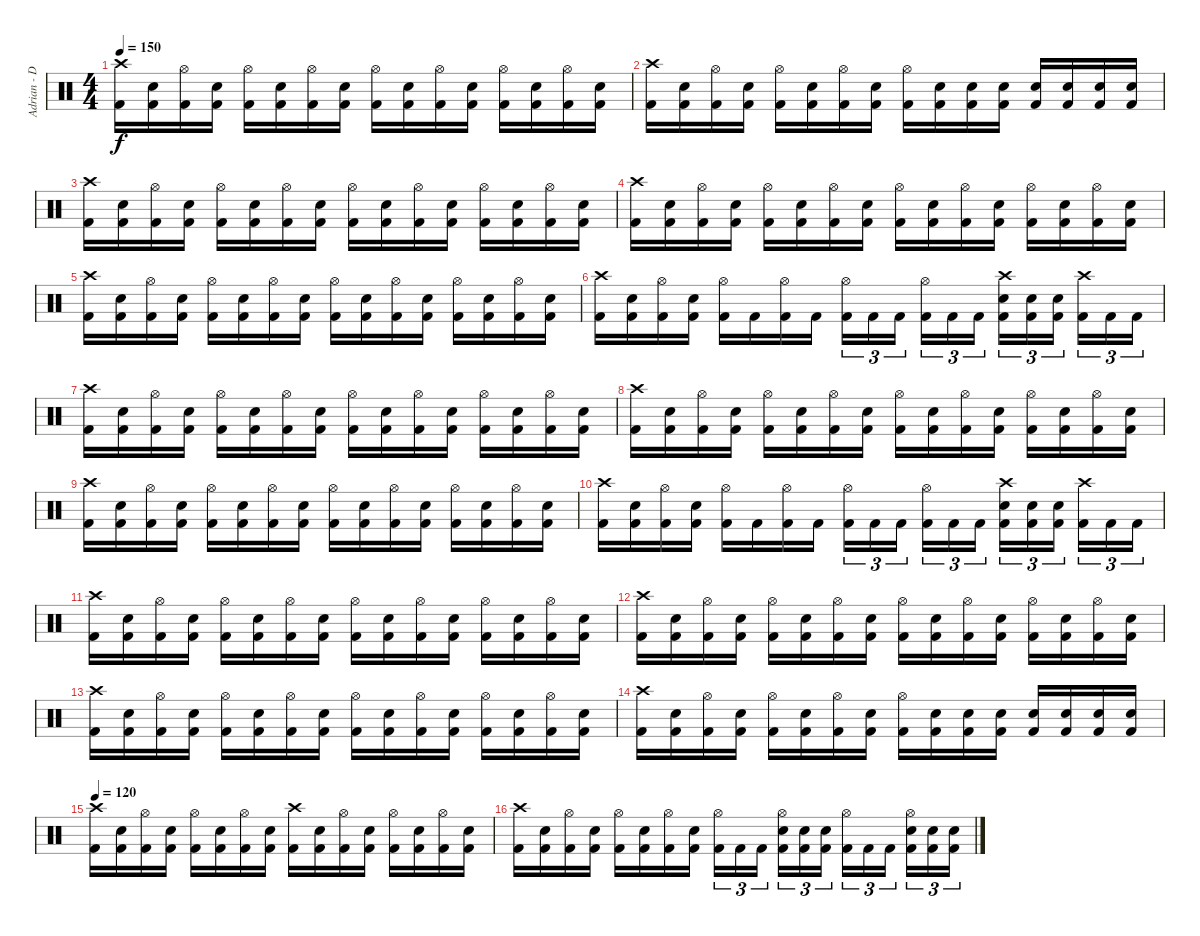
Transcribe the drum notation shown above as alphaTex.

\track ("Adrian - Drums" "Adrian - D") {instrument percussion}
\staff {score}
\articulation defaults
\ts (4 4)
\tempo 150
\clef neutral
\ks c
("Crash high (hit)" "Kick (hit) 2").16{dy f} ("Electric Snare (hit)" "Kick (hit) 2").16 ("Hi-Hat (open)" "Kick (hit) 2").16 ("Electric Snare (hit)" "Kick (hit) 2").16 ("Hi-Hat (open)" "Kick (hit) 2").16 ("Electric Snare (hit)" "Kick (hit) 2").16 ("Hi-Hat (open)" "Kick (hit) 2").16 ("Electric Snare (hit)" "Kick (hit) 2").16 ("Hi-Hat (open)" "Kick (hit) 2").16 ("Electric Snare (hit)" "Kick (hit) 2").16 ("Hi-Hat (open)" "Kick (hit) 2").16 ("Electric Snare (hit)" "Kick (hit) 2").16 ("Hi-Hat (open)" "Kick (hit) 2").16 ("Electric Snare (hit)" "Kick (hit) 2").16 ("Hi-Hat (open)" "Kick (hit) 2").16 ("Electric Snare (hit)" "Kick (hit) 2").16 |
("Crash high (hit)" "Kick (hit) 2").16 ("Electric Snare (hit)" "Kick (hit) 2").16 ("Hi-Hat (open)" "Kick (hit) 2").16 ("Electric Snare (hit)" "Kick (hit) 2").16 ("Hi-Hat (open)" "Kick (hit) 2").16 ("Electric Snare (hit)" "Kick (hit) 2").16 ("Hi-Hat (open)" "Kick (hit) 2").16 ("Electric Snare (hit)" "Kick (hit) 2").16 ("Hi-Hat (open)" "Kick (hit) 2").16 ("Electric Snare (hit)" "Kick (hit) 2").16 ("Electric Snare (hit)" "Kick (hit) 2").16 ("Electric Snare (hit)" "Kick (hit) 2").16 ("Electric Snare (hit)" "Kick (hit) 2").16 ("Electric Snare (hit)" "Kick (hit) 2").16 ("Electric Snare (hit)" "Kick (hit) 2").16 ("Electric Snare (hit)" "Kick (hit) 2").16 |
("Crash high (hit)" "Kick (hit) 2").16 ("Electric Snare (hit)" "Kick (hit) 2").16 ("Hi-Hat (open)" "Kick (hit) 2").16 ("Electric Snare (hit)" "Kick (hit) 2").16 ("Hi-Hat (open)" "Kick (hit) 2").16 ("Electric Snare (hit)" "Kick (hit) 2").16 ("Hi-Hat (open)" "Kick (hit) 2").16 ("Electric Snare (hit)" "Kick (hit) 2").16 ("Hi-Hat (open)" "Kick (hit) 2").16 ("Electric Snare (hit)" "Kick (hit) 2").16 ("Hi-Hat (open)" "Kick (hit) 2").16 ("Electric Snare (hit)" "Kick (hit) 2").16 ("Hi-Hat (open)" "Kick (hit) 2").16 ("Electric Snare (hit)" "Kick (hit) 2").16 ("Hi-Hat (open)" "Kick (hit) 2").16 ("Electric Snare (hit)" "Kick (hit) 2").16 |
("Crash high (hit)" "Kick (hit) 2").16 ("Electric Snare (hit)" "Kick (hit) 2").16 ("Hi-Hat (open)" "Kick (hit) 2").16 ("Electric Snare (hit)" "Kick (hit) 2").16 ("Hi-Hat (open)" "Kick (hit) 2").16 ("Electric Snare (hit)" "Kick (hit) 2").16 ("Hi-Hat (open)" "Kick (hit) 2").16 ("Electric Snare (hit)" "Kick (hit) 2").16 ("Hi-Hat (open)" "Kick (hit) 2").16 ("Electric Snare (hit)" "Kick (hit) 2").16 ("Hi-Hat (open)" "Kick (hit) 2").16 ("Electric Snare (hit)" "Kick (hit) 2").16 ("Hi-Hat (open)" "Kick (hit) 2").16 ("Electric Snare (hit)" "Kick (hit) 2").16 ("Hi-Hat (open)" "Kick (hit) 2").16 ("Electric Snare (hit)" "Kick (hit) 2").16 |
("Crash high (hit)" "Kick (hit) 2").16 ("Electric Snare (hit)" "Kick (hit) 2").16 ("Hi-Hat (open)" "Kick (hit) 2").16 ("Electric Snare (hit)" "Kick (hit) 2").16 ("Hi-Hat (open)" "Kick (hit) 2").16 ("Electric Snare (hit)" "Kick (hit) 2").16 ("Hi-Hat (open)" "Kick (hit) 2").16 ("Electric Snare (hit)" "Kick (hit) 2").16 ("Hi-Hat (open)" "Kick (hit) 2").16 ("Electric Snare (hit)" "Kick (hit) 2").16 ("Hi-Hat (open)" "Kick (hit) 2").16 ("Electric Snare (hit)" "Kick (hit) 2").16 ("Hi-Hat (open)" "Kick (hit) 2").16 ("Electric Snare (hit)" "Kick (hit) 2").16 ("Hi-Hat (open)" "Kick (hit) 2").16 ("Electric Snare (hit)" "Kick (hit) 2").16 |
("Crash high (hit)" "Kick (hit) 2").16 ("Electric Snare (hit)" "Kick (hit) 2").16 ("Hi-Hat (open)" "Kick (hit) 2").16 ("Electric Snare (hit)" "Kick (hit) 2").16 ("Hi-Hat (open)" "Kick (hit) 2").16 "Kick (hit) 2".16 ("Hi-Hat (open)" "Kick (hit) 2").16 "Kick (hit) 2".16 ("Hi-Hat (open)" "Kick (hit) 2").16{tu (3 2)} "Kick (hit) 2".16{tu (3 2)} "Kick (hit) 2".16{tu (3 2)} ("Hi-Hat (open)" "Kick (hit) 2").16{tu (3 2)} "Kick (hit) 2".16{tu (3 2)} "Kick (hit) 2".16{tu (3 2)} ("Crash high (hit)" "Electric Snare (hit)" "Kick (hit) 2").16{tu (3 2)} ("Electric Snare (hit)" "Kick (hit) 2").16{tu (3 2)} ("Electric Snare (hit)" "Kick (hit) 2").16{tu (3 2)} ("Crash high (hit)" "Kick (hit) 2").16{tu (3 2)} "Kick (hit) 2".16{tu (3 2)} "Kick (hit) 2".16{tu (3 2)} |
("Crash high (hit)" "Kick (hit) 2").16 ("Electric Snare (hit)" "Kick (hit) 2").16 ("Hi-Hat (open)" "Kick (hit) 2").16 ("Electric Snare (hit)" "Kick (hit) 2").16 ("Hi-Hat (open)" "Kick (hit) 2").16 ("Electric Snare (hit)" "Kick (hit) 2").16 ("Hi-Hat (open)" "Kick (hit) 2").16 ("Electric Snare (hit)" "Kick (hit) 2").16 ("Hi-Hat (open)" "Kick (hit) 2").16 ("Electric Snare (hit)" "Kick (hit) 2").16 ("Hi-Hat (open)" "Kick (hit) 2").16 ("Electric Snare (hit)" "Kick (hit) 2").16 ("Hi-Hat (open)" "Kick (hit) 2").16 ("Electric Snare (hit)" "Kick (hit) 2").16 ("Hi-Hat (open)" "Kick (hit) 2").16 ("Electric Snare (hit)" "Kick (hit) 2").16 |
("Crash high (hit)" "Kick (hit) 2").16 ("Electric Snare (hit)" "Kick (hit) 2").16 ("Hi-Hat (open)" "Kick (hit) 2").16 ("Electric Snare (hit)" "Kick (hit) 2").16 ("Hi-Hat (open)" "Kick (hit) 2").16 ("Electric Snare (hit)" "Kick (hit) 2").16 ("Hi-Hat (open)" "Kick (hit) 2").16 ("Electric Snare (hit)" "Kick (hit) 2").16 ("Hi-Hat (open)" "Kick (hit) 2").16 ("Electric Snare (hit)" "Kick (hit) 2").16 ("Hi-Hat (open)" "Kick (hit) 2").16 ("Electric Snare (hit)" "Kick (hit) 2").16 ("Hi-Hat (open)" "Kick (hit) 2").16 ("Electric Snare (hit)" "Kick (hit) 2").16 ("Hi-Hat (open)" "Kick (hit) 2").16 ("Electric Snare (hit)" "Kick (hit) 2").16 |
("Crash high (hit)" "Kick (hit) 2").16 ("Electric Snare (hit)" "Kick (hit) 2").16 ("Hi-Hat (open)" "Kick (hit) 2").16 ("Electric Snare (hit)" "Kick (hit) 2").16 ("Hi-Hat (open)" "Kick (hit) 2").16 ("Electric Snare (hit)" "Kick (hit) 2").16 ("Hi-Hat (open)" "Kick (hit) 2").16 ("Electric Snare (hit)" "Kick (hit) 2").16 ("Hi-Hat (open)" "Kick (hit) 2").16 ("Electric Snare (hit)" "Kick (hit) 2").16 ("Hi-Hat (open)" "Kick (hit) 2").16 ("Electric Snare (hit)" "Kick (hit) 2").16 ("Hi-Hat (open)" "Kick (hit) 2").16 ("Electric Snare (hit)" "Kick (hit) 2").16 ("Hi-Hat (open)" "Kick (hit) 2").16 ("Electric Snare (hit)" "Kick (hit) 2").16 |
("Crash high (hit)" "Kick (hit) 2").16 ("Electric Snare (hit)" "Kick (hit) 2").16 ("Hi-Hat (open)" "Kick (hit) 2").16 ("Electric Snare (hit)" "Kick (hit) 2").16 ("Hi-Hat (open)" "Kick (hit) 2").16 "Kick (hit) 2".16 ("Hi-Hat (open)" "Kick (hit) 2").16 "Kick (hit) 2".16 ("Hi-Hat (open)" "Kick (hit) 2").16{tu (3 2)} "Kick (hit) 2".16{tu (3 2)} "Kick (hit) 2".16{tu (3 2)} ("Hi-Hat (open)" "Kick (hit) 2").16{tu (3 2)} "Kick (hit) 2".16{tu (3 2)} "Kick (hit) 2".16{tu (3 2)} ("Crash high (hit)" "Electric Snare (hit)" "Kick (hit) 2").16{tu (3 2)} ("Electric Snare (hit)" "Kick (hit) 2").16{tu (3 2)} ("Electric Snare (hit)" "Kick (hit) 2").16{tu (3 2)} ("Crash high (hit)" "Kick (hit) 2").16{tu (3 2)} "Kick (hit) 2".16{tu (3 2)} "Kick (hit) 2".16{tu (3 2)} |
("Crash high (hit)" "Kick (hit) 2").16 ("Electric Snare (hit)" "Kick (hit) 2").16 ("Hi-Hat (open)" "Kick (hit) 2").16 ("Electric Snare (hit)" "Kick (hit) 2").16 ("Hi-Hat (open)" "Kick (hit) 2").16 ("Electric Snare (hit)" "Kick (hit) 2").16 ("Hi-Hat (open)" "Kick (hit) 2").16 ("Electric Snare (hit)" "Kick (hit) 2").16 ("Hi-Hat (open)" "Kick (hit) 2").16 ("Electric Snare (hit)" "Kick (hit) 2").16 ("Hi-Hat (open)" "Kick (hit) 2").16 ("Electric Snare (hit)" "Kick (hit) 2").16 ("Hi-Hat (open)" "Kick (hit) 2").16 ("Electric Snare (hit)" "Kick (hit) 2").16 ("Hi-Hat (open)" "Kick (hit) 2").16 ("Electric Snare (hit)" "Kick (hit) 2").16 |
("Crash high (hit)" "Kick (hit) 2").16 ("Electric Snare (hit)" "Kick (hit) 2").16 ("Hi-Hat (open)" "Kick (hit) 2").16 ("Electric Snare (hit)" "Kick (hit) 2").16 ("Hi-Hat (open)" "Kick (hit) 2").16 ("Electric Snare (hit)" "Kick (hit) 2").16 ("Hi-Hat (open)" "Kick (hit) 2").16 ("Electric Snare (hit)" "Kick (hit) 2").16 ("Hi-Hat (open)" "Kick (hit) 2").16 ("Electric Snare (hit)" "Kick (hit) 2").16 ("Hi-Hat (open)" "Kick (hit) 2").16 ("Electric Snare (hit)" "Kick (hit) 2").16 ("Hi-Hat (open)" "Kick (hit) 2").16 ("Electric Snare (hit)" "Kick (hit) 2").16 ("Hi-Hat (open)" "Kick (hit) 2").16 ("Electric Snare (hit)" "Kick (hit) 2").16 |
("Crash high (hit)" "Kick (hit) 2").16 ("Electric Snare (hit)" "Kick (hit) 2").16 ("Hi-Hat (open)" "Kick (hit) 2").16 ("Electric Snare (hit)" "Kick (hit) 2").16 ("Hi-Hat (open)" "Kick (hit) 2").16 ("Electric Snare (hit)" "Kick (hit) 2").16 ("Hi-Hat (open)" "Kick (hit) 2").16 ("Electric Snare (hit)" "Kick (hit) 2").16 ("Hi-Hat (open)" "Kick (hit) 2").16 ("Electric Snare (hit)" "Kick (hit) 2").16 ("Hi-Hat (open)" "Kick (hit) 2").16 ("Electric Snare (hit)" "Kick (hit) 2").16 ("Hi-Hat (open)" "Kick (hit) 2").16 ("Electric Snare (hit)" "Kick (hit) 2").16 ("Hi-Hat (open)" "Kick (hit) 2").16 ("Electric Snare (hit)" "Kick (hit) 2").16 |
("Crash high (hit)" "Kick (hit) 2").16 ("Electric Snare (hit)" "Kick (hit) 2").16 ("Hi-Hat (open)" "Kick (hit) 2").16 ("Electric Snare (hit)" "Kick (hit) 2").16 ("Hi-Hat (open)" "Kick (hit) 2").16 ("Electric Snare (hit)" "Kick (hit) 2").16 ("Hi-Hat (open)" "Kick (hit) 2").16 ("Electric Snare (hit)" "Kick (hit) 2").16 ("Hi-Hat (open)" "Kick (hit) 2").16 ("Electric Snare (hit)" "Kick (hit) 2").16 ("Electric Snare (hit)" "Kick (hit) 2").16 ("Electric Snare (hit)" "Kick (hit) 2").16 ("Electric Snare (hit)" "Kick (hit) 2").16 ("Electric Snare (hit)" "Kick (hit) 2").16 ("Electric Snare (hit)" "Kick (hit) 2").16 ("Electric Snare (hit)" "Kick (hit) 2").16 |
\tempo 120
("Crash high (hit)" "Kick (hit) 2").16 ("Electric Snare (hit)" "Kick (hit) 2").16 ("Hi-Hat (open)" "Kick (hit) 2").16 ("Electric Snare (hit)" "Kick (hit) 2").16 ("Hi-Hat (open)" "Kick (hit) 2").16 ("Electric Snare (hit)" "Kick (hit) 2").16 ("Hi-Hat (open)" "Kick (hit) 2").16 ("Electric Snare (hit)" "Kick (hit) 2").16 ("Crash high (hit)" "Kick (hit) 2").16 ("Electric Snare (hit)" "Kick (hit) 2").16 ("Hi-Hat (open)" "Kick (hit) 2").16 ("Electric Snare (hit)" "Kick (hit) 2").16 ("Hi-Hat (open)" "Kick (hit) 2").16 ("Electric Snare (hit)" "Kick (hit) 2").16 ("Hi-Hat (open)" "Kick (hit) 2").16 ("Electric Snare (hit)" "Kick (hit) 2").16 |
("Crash high (hit)" "Kick (hit) 2").16 ("Electric Snare (hit)" "Kick (hit) 2").16 ("Hi-Hat (open)" "Kick (hit) 2").16 ("Electric Snare (hit)" "Kick (hit) 2").16 ("Hi-Hat (open)" "Kick (hit) 2").16 ("Electric Snare (hit)" "Kick (hit) 2").16 ("Hi-Hat (open)" "Kick (hit) 2").16 ("Electric Snare (hit)" "Kick (hit) 2").16 ("Hi-Hat (open)" "Kick (hit) 2").16{tu (3 2)} "Kick (hit) 2".16{tu (3 2)} "Kick (hit) 2".16{tu (3 2)} ("Hi-Hat (open)" "Electric Snare (hit)" "Kick (hit) 2").16{tu (3 2)} ("Electric Snare (hit)" "Kick (hit) 2").16{tu (3 2)} ("Electric Snare (hit)" "Kick (hit) 2").16{tu (3 2)} ("Hi-Hat (open)" "Kick (hit) 2").16{tu (3 2)} "Kick (hit) 2".16{tu (3 2)} "Kick (hit) 2".16{tu (3 2)} ("Hi-Hat (open)" "Electric Snare (hit)" "Kick (hit) 2").16{tu (3 2)} ("Electric Snare (hit)" "Kick (hit) 2").16{tu (3 2)} ("Electric Snare (hit)" "Kick (hit) 2").16{tu (3 2)}
